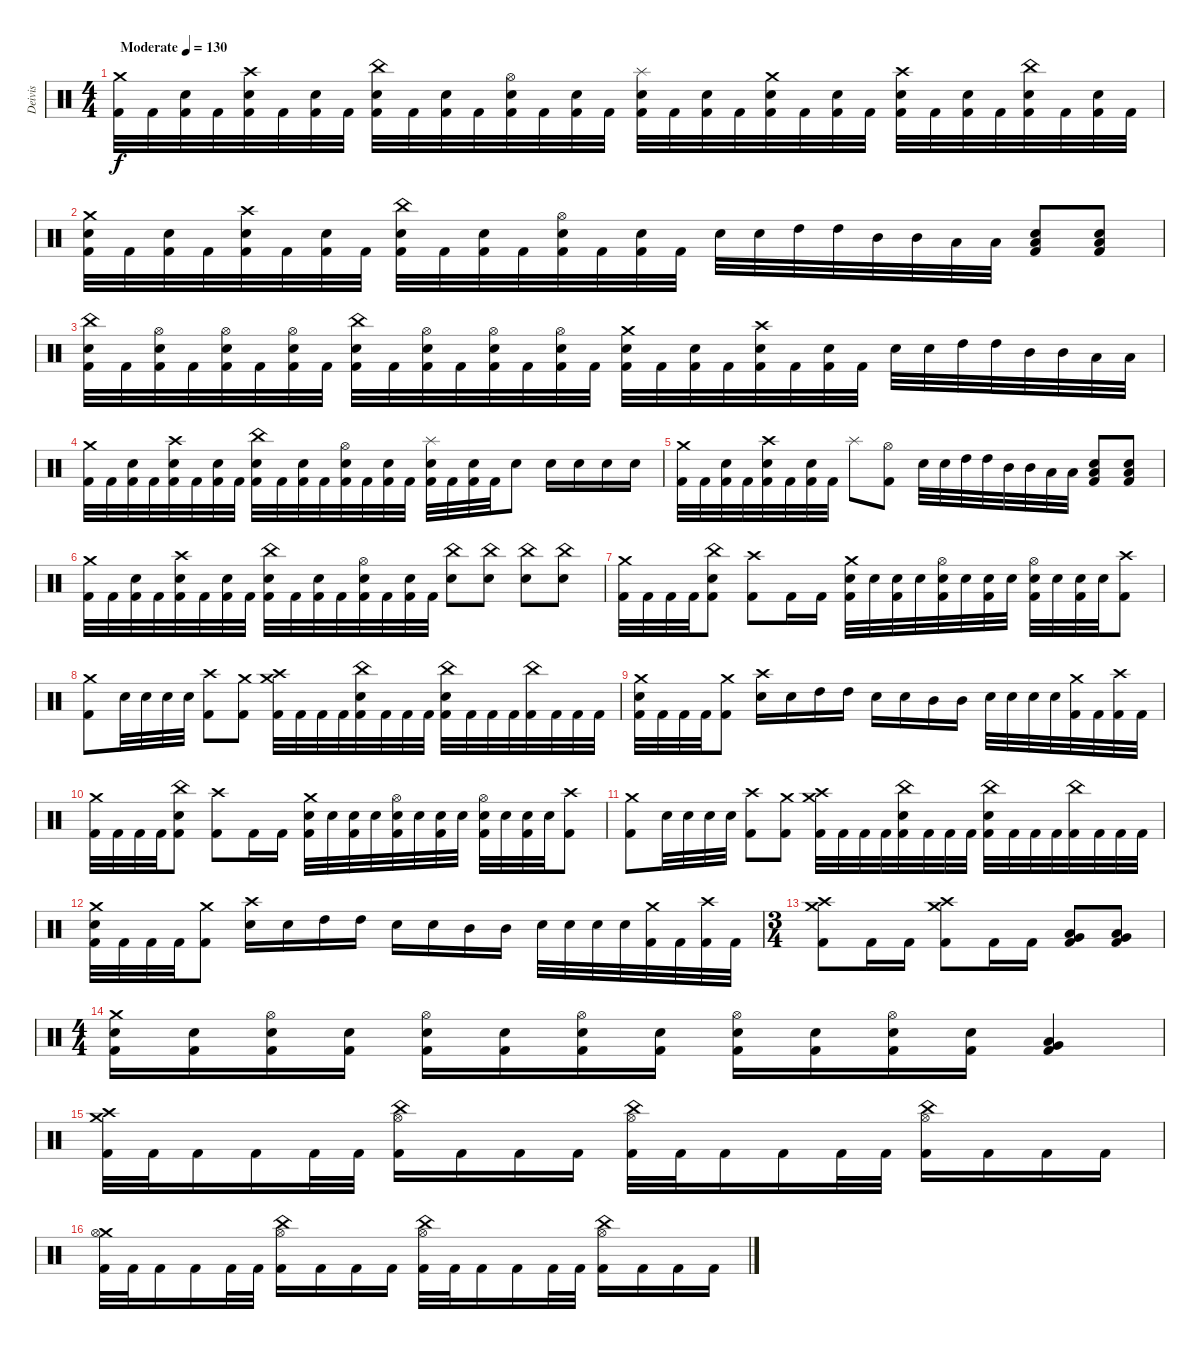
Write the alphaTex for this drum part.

\track ("Deivis" "Deivis") {instrument percussion}
\staff {score}
\articulation defaults
\ts (4 4)
\tempo (130 "Moderate")
\clef neutral
\ks c
("Crash medium (hit)" "Kick (hit) 2").32{dy f} "Kick (hit) 2".32 ("Electric Snare (hit)" "Kick (hit) 2").32 "Kick (hit) 2".32 ("Crash high (hit)" "Electric Snare (hit)" "Kick (hit) 2").32 "Kick (hit) 2".32 ("Electric Snare (hit)" "Kick (hit) 2").32 "Kick (hit) 2".32 ("China (hit)" "Electric Snare (hit)" "Kick (hit) 2").32 "Kick (hit) 2".32 ("Electric Snare (hit)" "Kick (hit) 2").32 "Kick (hit) 2".32 ("Hi-Hat (open)" "Electric Snare (hit)" "Kick (hit) 2").32 "Kick (hit) 2".32 ("Electric Snare (hit)" "Kick (hit) 2").32 "Kick (hit) 2".32 ("Splash (hit)" "Electric Snare (hit)" "Kick (hit) 2").32 "Kick (hit) 2".32 ("Electric Snare (hit)" "Kick (hit) 2").32 "Kick (hit) 2".32 ("Crash medium (hit)" "Electric Snare (hit)" "Kick (hit) 2").32 "Kick (hit) 2".32 ("Electric Snare (hit)" "Kick (hit) 2").32 "Kick (hit) 2".32 ("Crash high (hit)" "Electric Snare (hit)" "Kick (hit) 2").32 "Kick (hit) 2".32 ("Electric Snare (hit)" "Kick (hit) 2").32 "Kick (hit) 2".32 ("China (hit)" "Electric Snare (hit)" "Kick (hit) 2").32 "Kick (hit) 2".32 ("Electric Snare (hit)" "Kick (hit) 2").32 "Kick (hit) 2".32 |
("Crash medium (hit)" "Electric Snare (hit)" "Kick (hit) 2").32 "Kick (hit) 2".32 ("Electric Snare (hit)" "Kick (hit) 2").32 "Kick (hit) 2".32 ("Crash high (hit)" "Electric Snare (hit)" "Kick (hit) 2").32 "Kick (hit) 2".32 ("Electric Snare (hit)" "Kick (hit) 2").32 "Kick (hit) 2".32 ("China (hit)" "Electric Snare (hit)" "Kick (hit) 2").32 "Kick (hit) 2".32 ("Electric Snare (hit)" "Kick (hit) 2").32 "Kick (hit) 2".32 ("Hi-Hat (open)" "Electric Snare (hit)" "Kick (hit) 2").32 "Kick (hit) 2".32 ("Electric Snare (hit)" "Kick (hit) 2").32 "Kick (hit) 2".32 "Electric Snare (hit)".32 "Electric Snare (hit)".32 "High Tom (hit)".32 "High Tom (hit)".32 "Mid Tom (hit)".32 "Mid Tom (hit)".32 "Low Tom (hit)".32 "Low Tom (hit)".32 ("Low Floor Tom (hit)" "Electric Snare (hit)" "Kick (hit) 2").8 ("Low Floor Tom (hit)" "Electric Snare (hit)" "Kick (hit) 2").8 |
("China (hit)" "Electric Snare (hit)" "Kick (hit) 2").32 "Kick (hit) 2".32 ("Hi-Hat (open)" "Electric Snare (hit)" "Kick (hit) 2").32 "Kick (hit) 2".32 ("Hi-Hat (open)" "Electric Snare (hit)" "Kick (hit) 2").32 "Kick (hit) 2".32 ("Hi-Hat (open)" "Electric Snare (hit)" "Kick (hit) 2").32 "Kick (hit) 2".32 ("China (hit)" "Electric Snare (hit)" "Kick (hit) 2").32 "Kick (hit) 2".32 ("Hi-Hat (open)" "Electric Snare (hit)" "Kick (hit) 2").32 "Kick (hit) 2".32 ("Hi-Hat (open)" "Electric Snare (hit)" "Kick (hit) 2").32 "Kick (hit) 2".32 ("Hi-Hat (open)" "Electric Snare (hit)" "Kick (hit) 2").32 "Kick (hit) 2".32 ("Crash medium (hit)" "Electric Snare (hit)" "Kick (hit) 2").32 "Kick (hit) 2".32 ("Electric Snare (hit)" "Kick (hit) 2").32 "Kick (hit) 2".32 ("Crash high (hit)" "Electric Snare (hit)" "Kick (hit) 2").32 "Kick (hit) 2".32 ("Electric Snare (hit)" "Kick (hit) 2").32 "Kick (hit) 2".32 "Electric Snare (hit)".32 "Electric Snare (hit)".32 "High Tom (hit)".32 "High Tom (hit)".32 "Mid Tom (hit)".32 "Mid Tom (hit)".32 "Low Tom (hit)".32 "Low Tom (hit)".32 |
("Crash medium (hit)" "Kick (hit) 2").32 "Kick (hit) 2".32 ("Electric Snare (hit)" "Kick (hit) 2").32 "Kick (hit) 2".32 ("Crash high (hit)" "Electric Snare (hit)" "Kick (hit) 2").32 "Kick (hit) 2".32 ("Electric Snare (hit)" "Kick (hit) 2").32 "Kick (hit) 2".32 ("China (hit)" "Electric Snare (hit)" "Kick (hit) 2").32 "Kick (hit) 2".32 ("Electric Snare (hit)" "Kick (hit) 2").32 "Kick (hit) 2".32 ("Hi-Hat (open)" "Electric Snare (hit)" "Kick (hit) 2").32 "Kick (hit) 2".32 ("Electric Snare (hit)" "Kick (hit) 2").32 "Kick (hit) 2".32 ("Splash (hit)" "Electric Snare (hit)" "Kick (hit) 2").32 "Kick (hit) 2".32 ("Electric Snare (hit)" "Kick (hit) 2").32 "Kick (hit) 2".32 "Electric Snare (hit)".8 "Electric Snare (hit)".16 "Electric Snare (hit)".16 "Electric Snare (hit)".16 "Electric Snare (hit)".16 |
("Crash medium (hit)" "Kick (hit) 2").32 "Kick (hit) 2".32 ("Electric Snare (hit)" "Kick (hit) 2").32 "Kick (hit) 2".32 ("Crash high (hit)" "Electric Snare (hit)" "Kick (hit) 2").32 "Kick (hit) 2".32 ("Electric Snare (hit)" "Kick (hit) 2").32 "Kick (hit) 2".32 "Splash (hit)".8 ("Hi-Hat (open)" "Kick (hit) 2").8 "Electric Snare (hit)".32 "Electric Snare (hit)".32 "High Tom (hit)".32 "High Tom (hit)".32 "Mid Tom (hit)".32 "Mid Tom (hit)".32 "Low Tom (hit)".32 "Low Tom (hit)".32 ("Low Floor Tom (hit)" "Electric Snare (hit)" "Kick (hit) 2").8 ("Low Floor Tom (hit)" "Electric Snare (hit)" "Kick (hit) 2").8 |
("Crash medium (hit)" "Kick (hit) 2").32 "Kick (hit) 2".32 ("Electric Snare (hit)" "Kick (hit) 2").32 "Kick (hit) 2".32 ("Crash high (hit)" "Electric Snare (hit)" "Kick (hit) 2").32 "Kick (hit) 2".32 ("Electric Snare (hit)" "Kick (hit) 2").32 "Kick (hit) 2".32 ("China (hit)" "Electric Snare (hit)" "Kick (hit) 2").32 "Kick (hit) 2".32 ("Electric Snare (hit)" "Kick (hit) 2").32 "Kick (hit) 2".32 ("Hi-Hat (open)" "Electric Snare (hit)" "Kick (hit) 2").32 "Kick (hit) 2".32 ("Electric Snare (hit)" "Kick (hit) 2").32 "Kick (hit) 2".32 ("China (hit)" "Electric Snare (hit)").8 ("China (hit)" "Electric Snare (hit)").8 ("China (hit)" "Electric Snare (hit)").8 ("China (hit)" "Electric Snare (hit)").8 |
("Crash medium (hit)" "Kick (hit) 2").32 "Kick (hit) 2".32 "Kick (hit) 2".32 "Kick (hit) 2".32 ("China (hit)" "Electric Snare (hit)" "Kick (hit) 2").8 ("Crash high (hit)" "Kick (hit) 2").8 "Kick (hit) 2".16 "Kick (hit) 2".16 ("Crash medium (hit)" "Electric Snare (hit)" "Kick (hit) 2").32 "Electric Snare (hit)".32 ("Electric Snare (hit)" "Kick (hit) 2").32 "Electric Snare (hit)".32 ("Hi-Hat (open)" "Electric Snare (hit)" "Kick (hit) 2").32 "Electric Snare (hit)".32 ("Electric Snare (hit)" "Kick (hit) 2").32 "Electric Snare (hit)".32 ("Hi-Hat (open)" "Electric Snare (hit)" "Kick (hit) 2").32 "Electric Snare (hit)".32 ("Electric Snare (hit)" "Kick (hit) 2").32 "Electric Snare (hit)".32 ("Crash high (hit)" "Kick (hit) 2").8 |
("Crash medium (hit)" "Kick (hit) 2").8 "Electric Snare (hit)".32 "Electric Snare (hit)".32 "Electric Snare (hit)".32 "Electric Snare (hit)".32 ("Crash high (hit)" "Kick (hit) 2").8 ("Crash medium (hit)" "Kick (hit) 2").8 ("Crash medium (hit)" "Crash high (hit)" "Kick (hit) 2").32 "Kick (hit) 2".32 "Kick (hit) 2".32 "Kick (hit) 2".32 ("China (hit)" "Electric Snare (hit)" "Kick (hit) 2").32 "Kick (hit) 2".32 "Kick (hit) 2".32 "Kick (hit) 2".32 ("China (hit)" "Electric Snare (hit)" "Kick (hit) 2").32 "Kick (hit) 2".32 "Kick (hit) 2".32 "Kick (hit) 2".32 ("China (hit)" "Kick (hit) 2").32 "Kick (hit) 2".32 "Kick (hit) 2".32 "Kick (hit) 2".32 |
("Crash medium (hit)" "Electric Snare (hit)" "Kick (hit) 2").32 "Kick (hit) 2".32 "Kick (hit) 2".32 "Kick (hit) 2".32 ("Crash medium (hit)" "Kick (hit) 2").8 ("Crash high (hit)" "Electric Snare (hit)").16 "Electric Snare (hit)".16 "High Tom (hit)".16 "High Tom (hit)".16 "Electric Snare (hit)".16 "Electric Snare (hit)".16 "Mid Tom (hit)".16 "Mid Tom (hit)".16 "Electric Snare (hit)".32 "Electric Snare (hit)".32 "Electric Snare (hit)".32 "Electric Snare (hit)".32 ("Crash medium (hit)" "Kick (hit) 2").32 "Kick (hit) 2".32 ("Crash high (hit)" "Kick (hit) 2").32 "Kick (hit) 2".32 |
("Crash medium (hit)" "Kick (hit) 2").32 "Kick (hit) 2".32 "Kick (hit) 2".32 "Kick (hit) 2".32 ("China (hit)" "Electric Snare (hit)" "Kick (hit) 2").8 ("Crash high (hit)" "Kick (hit) 2").8 "Kick (hit) 2".16 "Kick (hit) 2".16 ("Crash medium (hit)" "Electric Snare (hit)" "Kick (hit) 2").32 "Electric Snare (hit)".32 ("Electric Snare (hit)" "Kick (hit) 2").32 "Electric Snare (hit)".32 ("Hi-Hat (open)" "Electric Snare (hit)" "Kick (hit) 2").32 "Electric Snare (hit)".32 ("Electric Snare (hit)" "Kick (hit) 2").32 "Electric Snare (hit)".32 ("Hi-Hat (open)" "Electric Snare (hit)" "Kick (hit) 2").32 "Electric Snare (hit)".32 ("Electric Snare (hit)" "Kick (hit) 2").32 "Electric Snare (hit)".32 ("Crash high (hit)" "Kick (hit) 2").8 |
("Crash medium (hit)" "Kick (hit) 2").8 "Electric Snare (hit)".32 "Electric Snare (hit)".32 "Electric Snare (hit)".32 "Electric Snare (hit)".32 ("Crash high (hit)" "Kick (hit) 2").8 ("Crash medium (hit)" "Kick (hit) 2").8 ("Crash medium (hit)" "Crash high (hit)" "Kick (hit) 2").32 "Kick (hit) 2".32 "Kick (hit) 2".32 "Kick (hit) 2".32 ("China (hit)" "Electric Snare (hit)" "Kick (hit) 2").32 "Kick (hit) 2".32 "Kick (hit) 2".32 "Kick (hit) 2".32 ("China (hit)" "Electric Snare (hit)" "Kick (hit) 2").32 "Kick (hit) 2".32 "Kick (hit) 2".32 "Kick (hit) 2".32 ("China (hit)" "Kick (hit) 2").32 "Kick (hit) 2".32 "Kick (hit) 2".32 "Kick (hit) 2".32 |
("Crash medium (hit)" "Electric Snare (hit)" "Kick (hit) 2").32 "Kick (hit) 2".32 "Kick (hit) 2".32 "Kick (hit) 2".32 ("Crash medium (hit)" "Kick (hit) 2").8 ("Crash high (hit)" "Electric Snare (hit)").16 "Electric Snare (hit)".16 "High Tom (hit)".16 "High Tom (hit)".16 "Electric Snare (hit)".16 "Electric Snare (hit)".16 "Mid Tom (hit)".16 "Mid Tom (hit)".16 "Electric Snare (hit)".32 "Electric Snare (hit)".32 "Electric Snare (hit)".32 "Electric Snare (hit)".32 ("Crash medium (hit)" "Kick (hit) 2").32 "Kick (hit) 2".32 ("Crash high (hit)" "Kick (hit) 2").32 "Kick (hit) 2".32 |
\ts (3 4)
("Crash medium (hit)" "Crash high (hit)" "Kick (hit) 2").8 "Kick (hit) 2".16 "Kick (hit) 2".16 ("Crash medium (hit)" "Crash high (hit)" "Kick (hit) 2").8 "Kick (hit) 2".16 "Kick (hit) 2".16 ("Very Low Tom (hit)" "Low Floor Tom (hit)" "Kick (hit) 2").8 ("Very Low Tom (hit)" "Low Floor Tom (hit)" "Kick (hit) 2").8 |
\ts (4 4)
("Crash medium (hit)" "Electric Snare (hit)" "Kick (hit) 2").16 ("Electric Snare (hit)" "Kick (hit) 2").16 ("Hi-Hat (open)" "Electric Snare (hit)" "Kick (hit) 2").16 ("Electric Snare (hit)" "Kick (hit) 2").16 ("Hi-Hat (open)" "Electric Snare (hit)" "Kick (hit) 2").16 ("Electric Snare (hit)" "Kick (hit) 2").16 ("Hi-Hat (open)" "Electric Snare (hit)" "Kick (hit) 2").16 ("Electric Snare (hit)" "Kick (hit) 2").16 ("Hi-Hat (open)" "Electric Snare (hit)" "Kick (hit) 2").16 ("Electric Snare (hit)" "Kick (hit) 2").16 ("Hi-Hat (open)" "Electric Snare (hit)" "Kick (hit) 2").16 ("Electric Snare (hit)" "Kick (hit) 2").16 ("Very Low Tom (hit)" "Low Floor Tom (hit)" "Kick (hit) 2").4 |
("Crash medium (hit)" "Crash high (hit)" "Kick (hit) 2").32 "Kick (hit) 2".32 "Kick (hit) 2".16 "Kick (hit) 2".16 "Kick (hit) 2".32 "Kick (hit) 2".32 ("China (hit)" "Hi-Hat (open)" "Kick (hit) 2").16 "Kick (hit) 2".16 "Kick (hit) 2".16 "Kick (hit) 2".16 ("China (hit)" "Hi-Hat (open)" "Kick (hit) 2").32 "Kick (hit) 2".32 "Kick (hit) 2".16 "Kick (hit) 2".16 "Kick (hit) 2".32 "Kick (hit) 2".32 ("China (hit)" "Hi-Hat (open)" "Kick (hit) 2").16 "Kick (hit) 2".16 "Kick (hit) 2".16 "Kick (hit) 2".16 |
("Crash medium (hit)" "Hi-Hat (open)" "Kick (hit) 2").32 "Kick (hit) 2".32 "Kick (hit) 2".16 "Kick (hit) 2".16 "Kick (hit) 2".32 "Kick (hit) 2".32 ("China (hit)" "Hi-Hat (open)" "Kick (hit) 2").16 "Kick (hit) 2".16 "Kick (hit) 2".16 "Kick (hit) 2".16 ("China (hit)" "Hi-Hat (open)" "Kick (hit) 2").32 "Kick (hit) 2".32 "Kick (hit) 2".16 "Kick (hit) 2".16 "Kick (hit) 2".32 "Kick (hit) 2".32 ("China (hit)" "Hi-Hat (open)" "Kick (hit) 2").16 "Kick (hit) 2".16 "Kick (hit) 2".16 "Kick (hit) 2".16
